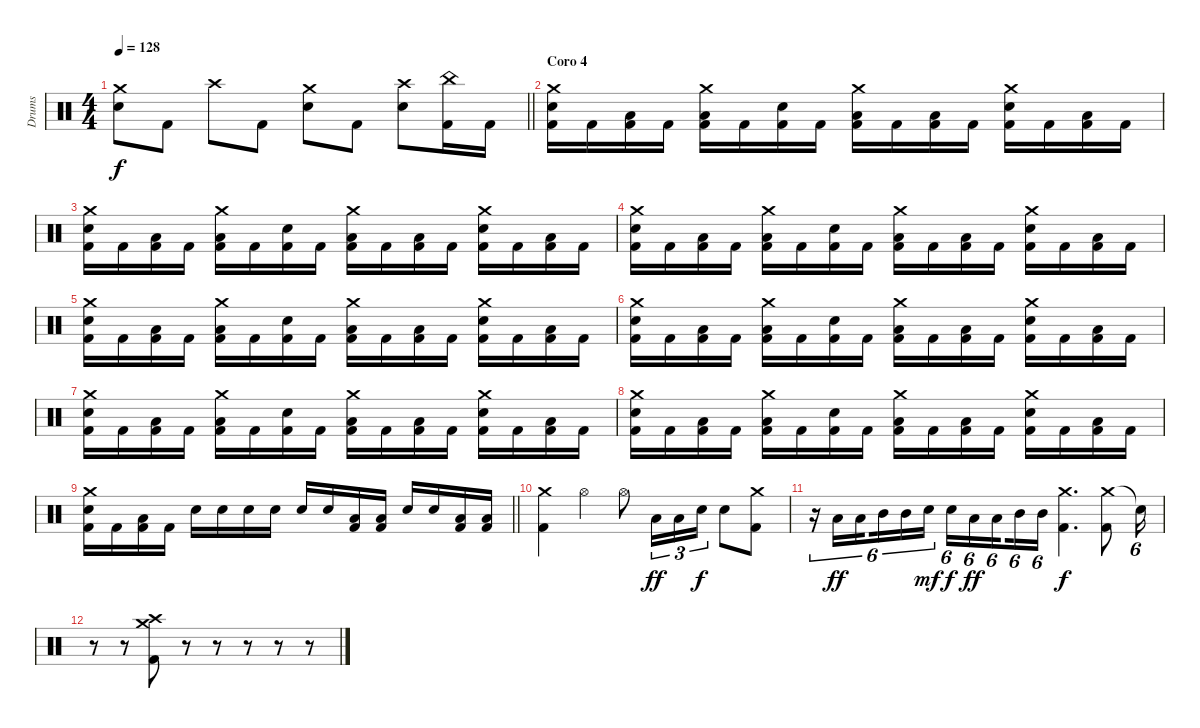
\track ("Drums" "Drums") {instrument percussion}
\staff {score}
\articulation defaults
\ts (4 4)
\tempo 128
\clef neutral
\barLineRight lightlight
\ks c
("Crash medium (hit)" "Electric Snare (hit)").8{dy f} "Kick (hit) 2".8 "Crash high (hit)".8 "Kick (hit) 2".8 ("Crash medium (hit)" "Electric Snare (hit)").8 "Kick (hit) 2".8 ("Crash high (hit)" "Electric Snare (hit)").8 ("China (hit)" "Kick (hit) 2").16 "Kick (hit) 2".16 |
\section ("" "Coro 4")
("Crash medium (hit)" "Electric Snare (hit)" "Kick (hit) 2").16 "Kick (hit) 2".16 ("Low Tom (hit)" "Kick (hit) 2").16 "Kick (hit) 2".16 ("Crash medium (hit)" "Low Tom (hit)" "Kick (hit) 2").16 "Kick (hit) 2".16 ("Electric Snare (hit)" "Kick (hit) 2").16 "Kick (hit) 2".16 ("Crash medium (hit)" "Low Tom (hit)" "Kick (hit) 2").16 "Kick (hit) 2".16 ("Low Tom (hit)" "Kick (hit) 2").16 "Kick (hit) 2".16 ("Crash medium (hit)" "Electric Snare (hit)" "Kick (hit) 2").16 "Kick (hit) 2".16 ("Low Tom (hit)" "Kick (hit) 2").16 "Kick (hit) 2".16 |
("Crash medium (hit)" "Electric Snare (hit)" "Kick (hit) 2").16 "Kick (hit) 2".16 ("Low Tom (hit)" "Kick (hit) 2").16 "Kick (hit) 2".16 ("Crash medium (hit)" "Low Tom (hit)" "Kick (hit) 2").16 "Kick (hit) 2".16 ("Electric Snare (hit)" "Kick (hit) 2").16 "Kick (hit) 2".16 ("Crash medium (hit)" "Low Tom (hit)" "Kick (hit) 2").16 "Kick (hit) 2".16 ("Low Tom (hit)" "Kick (hit) 2").16 "Kick (hit) 2".16 ("Crash medium (hit)" "Electric Snare (hit)" "Kick (hit) 2").16 "Kick (hit) 2".16 ("Low Tom (hit)" "Kick (hit) 2").16 "Kick (hit) 2".16 |
("Crash medium (hit)" "Electric Snare (hit)" "Kick (hit) 2").16 "Kick (hit) 2".16 ("Low Tom (hit)" "Kick (hit) 2").16 "Kick (hit) 2".16 ("Crash medium (hit)" "Low Tom (hit)" "Kick (hit) 2").16 "Kick (hit) 2".16 ("Electric Snare (hit)" "Kick (hit) 2").16 "Kick (hit) 2".16 ("Crash medium (hit)" "Low Tom (hit)" "Kick (hit) 2").16 "Kick (hit) 2".16 ("Low Tom (hit)" "Kick (hit) 2").16 "Kick (hit) 2".16 ("Crash medium (hit)" "Electric Snare (hit)" "Kick (hit) 2").16 "Kick (hit) 2".16 ("Low Tom (hit)" "Kick (hit) 2").16 "Kick (hit) 2".16 |
("Crash medium (hit)" "Electric Snare (hit)" "Kick (hit) 2").16 "Kick (hit) 2".16 ("Low Tom (hit)" "Kick (hit) 2").16 "Kick (hit) 2".16 ("Crash medium (hit)" "Low Tom (hit)" "Kick (hit) 2").16 "Kick (hit) 2".16 ("Electric Snare (hit)" "Kick (hit) 2").16 "Kick (hit) 2".16 ("Crash medium (hit)" "Low Tom (hit)" "Kick (hit) 2").16 "Kick (hit) 2".16 ("Low Tom (hit)" "Kick (hit) 2").16 "Kick (hit) 2".16 ("Crash medium (hit)" "Electric Snare (hit)" "Kick (hit) 2").16 "Kick (hit) 2".16 ("Low Tom (hit)" "Kick (hit) 2").16 "Kick (hit) 2".16 |
("Crash medium (hit)" "Electric Snare (hit)" "Kick (hit) 2").16 "Kick (hit) 2".16 ("Low Tom (hit)" "Kick (hit) 2").16 "Kick (hit) 2".16 ("Crash medium (hit)" "Low Tom (hit)" "Kick (hit) 2").16 "Kick (hit) 2".16 ("Electric Snare (hit)" "Kick (hit) 2").16 "Kick (hit) 2".16 ("Crash medium (hit)" "Low Tom (hit)" "Kick (hit) 2").16 "Kick (hit) 2".16 ("Low Tom (hit)" "Kick (hit) 2").16 "Kick (hit) 2".16 ("Crash medium (hit)" "Electric Snare (hit)" "Kick (hit) 2").16 "Kick (hit) 2".16 ("Low Tom (hit)" "Kick (hit) 2").16 "Kick (hit) 2".16 |
("Crash medium (hit)" "Electric Snare (hit)" "Kick (hit) 2").16 "Kick (hit) 2".16 ("Low Tom (hit)" "Kick (hit) 2").16 "Kick (hit) 2".16 ("Crash medium (hit)" "Low Tom (hit)" "Kick (hit) 2").16 "Kick (hit) 2".16 ("Electric Snare (hit)" "Kick (hit) 2").16 "Kick (hit) 2".16 ("Crash medium (hit)" "Low Tom (hit)" "Kick (hit) 2").16 "Kick (hit) 2".16 ("Low Tom (hit)" "Kick (hit) 2").16 "Kick (hit) 2".16 ("Crash medium (hit)" "Electric Snare (hit)" "Kick (hit) 2").16 "Kick (hit) 2".16 ("Low Tom (hit)" "Kick (hit) 2").16 "Kick (hit) 2".16 |
("Crash medium (hit)" "Electric Snare (hit)" "Kick (hit) 2").16 "Kick (hit) 2".16 ("Low Tom (hit)" "Kick (hit) 2").16 "Kick (hit) 2".16 ("Crash medium (hit)" "Low Tom (hit)" "Kick (hit) 2").16 "Kick (hit) 2".16 ("Electric Snare (hit)" "Kick (hit) 2").16 "Kick (hit) 2".16 ("Crash medium (hit)" "Low Tom (hit)" "Kick (hit) 2").16 "Kick (hit) 2".16 ("Low Tom (hit)" "Kick (hit) 2").16 "Kick (hit) 2".16 ("Crash medium (hit)" "Electric Snare (hit)" "Kick (hit) 2").16 "Kick (hit) 2".16 ("Low Tom (hit)" "Kick (hit) 2").16 "Kick (hit) 2".16 |
\barLineRight lightlight
("Crash medium (hit)" "Electric Snare (hit)" "Kick (hit) 2").16 "Kick (hit) 2".16 ("Low Tom (hit)" "Kick (hit) 2").16 "Kick (hit) 2".16 "Electric Snare (hit)".16 "Electric Snare (hit)".16 "Electric Snare (hit)".16 "Electric Snare (hit)".16 "Electric Snare (hit)".16 "Electric Snare (hit)".16 ("Low Tom (hit)" "Kick (hit) 2").16 ("Low Tom (hit)" "Kick (hit) 2").16 "Electric Snare (hit)".16 "Electric Snare (hit)".16 ("Low Tom (hit)" "Kick (hit) 2").16 ("Low Tom (hit)" "Kick (hit) 2").16 |
\section ("" "")
("Crash medium (hit)" "Kick (hit) 2").4 "Hi-Hat (open)".4 "Hi-Hat (open)".8 "Low Tom (hit)".16{tu (3 2) dy ff} "Low Tom (hit)".16{tu (3 2)} "Electric Snare (hit)".16{tu (3 2) dy f} "Electric Snare (hit)".8 ("Crash medium (hit)" "Kick (hit) 2").8 |
r.16{tu (6 4)} "Low Tom (hit)".16{tu (6 4) dy ff} "Low Tom (hit)".16{tu (6 4) beam splitsecondary} "Mid Tom (hit)".16{tu (6 4)} "Mid Tom (hit)".16{tu (6 4)} "Electric Snare (hit)".16{tu (6 4) dy mf} "Electric Snare (hit)".16{tu (6 4) dy f} "Low Tom (hit)".16{tu (6 4) dy ff} "Low Tom (hit)".16{tu (6 4) beam splitsecondary} "Mid Tom (hit)".16{tu (6 4)} "Mid Tom (hit)".16{tu (6 4)} ("Crash medium (hit)" "Kick (hit) 2").4{d dy f} ("Crash medium (hit)" "Kick (hit) 2").8 "Snare (hit)"{t}.16{tu (6 4)} |
r.8 r.8 ("Crash high (hit)" "Crash medium (hit)" "Kick (hit) 2").8 r.8 r.8 r.8 r.8 r.8
